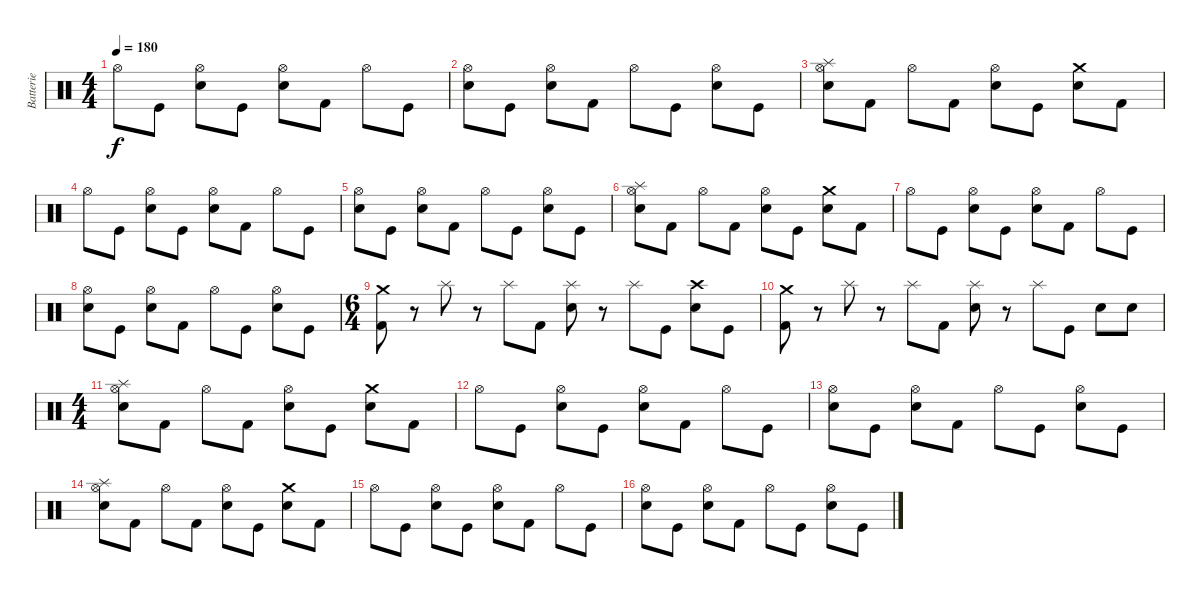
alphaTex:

\track ("Batterie" "Batterie") {instrument percussion}
\staff {score}
\articulation defaults
\ts (4 4)
\tempo 180
\clef neutral
\ks c "Hi-Hat (open)".8{dy f} "Kick (hit)".8
("Hi-Hat (open)" "Electric Snare (hit)").8 "Kick (hit)".8 ("Hi-Hat (open)" "Electric Snare (hit)").8 "Kick (hit) 2".8 "Hi-Hat (open)".8 "Kick (hit)".8 |
("Hi-Hat (open)" "Electric Snare (hit)").8 "Kick (hit)".8 ("Hi-Hat (open)" "Electric Snare (hit)").8 "Kick (hit) 2".8 "Hi-Hat (open)".8 "Kick (hit)".8 ("Hi-Hat (open)" "Electric Snare (hit)").8 "Kick (hit)".8 |
("Splash (hit)" "Hi-Hat (open)" "Electric Snare (hit)").8 "Kick (hit) 2".8 "Hi-Hat (open)".8 "Kick (hit) 2".8 ("Hi-Hat (open)" "Electric Snare (hit)").8 "Kick (hit)".8 ("Crash medium (hit)" "Electric Snare (hit)").8 "Kick (hit) 2".8 |
"Hi-Hat (open)".8 "Kick (hit)".8 ("Hi-Hat (open)" "Electric Snare (hit)").8 "Kick (hit)".8 ("Hi-Hat (open)" "Electric Snare (hit)").8 "Kick (hit) 2".8 "Hi-Hat (open)".8 "Kick (hit)".8 |
("Hi-Hat (open)" "Electric Snare (hit)").8 "Kick (hit)".8 ("Hi-Hat (open)" "Electric Snare (hit)").8 "Kick (hit) 2".8 "Hi-Hat (open)".8 "Kick (hit)".8 ("Hi-Hat (open)" "Electric Snare (hit)").8 "Kick (hit)".8 |
("Splash (hit)" "Hi-Hat (open)" "Electric Snare (hit)").8 "Kick (hit) 2".8 "Hi-Hat (open)".8 "Kick (hit) 2".8 ("Hi-Hat (open)" "Electric Snare (hit)").8 "Kick (hit)".8 ("Crash medium (hit)" "Electric Snare (hit)").8 "Kick (hit) 2".8 |
"Hi-Hat (open)".8 "Kick (hit)".8 ("Hi-Hat (open)" "Electric Snare (hit)").8 "Kick (hit)".8 ("Hi-Hat (open)" "Electric Snare (hit)").8 "Kick (hit) 2".8 "Hi-Hat (open)".8 "Kick (hit)".8 |
("Hi-Hat (open)" "Electric Snare (hit)").8 "Kick (hit)".8 ("Hi-Hat (open)" "Electric Snare (hit)").8 "Kick (hit) 2".8 "Hi-Hat (open)".8 "Kick (hit)".8 ("Hi-Hat (open)" "Electric Snare (hit)").8 "Kick (hit)".8 |
\ts (6 4)
("Crash medium (hit)" "Kick (hit) 2").8 r.8 "Splash (hit)".8 r.8 "Splash (hit)".8 "Kick (hit) 2".8 ("Splash (hit)" "Electric Snare (hit)").8 r.8 "Splash (hit)".8 "Kick (hit)".8 ("Crash high (hit)" "Electric Snare (hit)").8 "Kick (hit)".8 |
("Crash medium (hit)" "Kick (hit) 2").8 r.8 "Splash (hit)".8 r.8 "Splash (hit)".8 "Kick (hit) 2".8 ("Splash (hit)" "Electric Snare (hit)").8 r.8 "Splash (hit)".8 "Kick (hit)".8 "Electric Snare (hit)".8 "Electric Snare (hit)".8 |
\ts (4 4)
("Splash (hit)" "Hi-Hat (open)" "Electric Snare (hit)").8 "Kick (hit) 2".8 "Hi-Hat (open)".8 "Kick (hit) 2".8 ("Hi-Hat (open)" "Electric Snare (hit)").8 "Kick (hit)".8 ("Crash medium (hit)" "Electric Snare (hit)").8 "Kick (hit) 2".8 |
"Hi-Hat (open)".8 "Kick (hit)".8 ("Hi-Hat (open)" "Electric Snare (hit)").8 "Kick (hit)".8 ("Hi-Hat (open)" "Electric Snare (hit)").8 "Kick (hit) 2".8 "Hi-Hat (open)".8 "Kick (hit)".8 |
("Hi-Hat (open)" "Electric Snare (hit)").8 "Kick (hit)".8 ("Hi-Hat (open)" "Electric Snare (hit)").8 "Kick (hit) 2".8 "Hi-Hat (open)".8 "Kick (hit)".8 ("Hi-Hat (open)" "Electric Snare (hit)").8 "Kick (hit)".8 |
("Splash (hit)" "Hi-Hat (open)" "Electric Snare (hit)").8 "Kick (hit) 2".8 "Hi-Hat (open)".8 "Kick (hit) 2".8 ("Hi-Hat (open)" "Electric Snare (hit)").8 "Kick (hit)".8 ("Crash medium (hit)" "Electric Snare (hit)").8 "Kick (hit) 2".8 |
"Hi-Hat (open)".8 "Kick (hit)".8 ("Hi-Hat (open)" "Electric Snare (hit)").8 "Kick (hit)".8 ("Hi-Hat (open)" "Electric Snare (hit)").8 "Kick (hit) 2".8 "Hi-Hat (open)".8 "Kick (hit)".8 |
("Hi-Hat (open)" "Electric Snare (hit)").8 "Kick (hit)".8 ("Hi-Hat (open)" "Electric Snare (hit)").8 "Kick (hit) 2".8 "Hi-Hat (open)".8 "Kick (hit)".8 ("Hi-Hat (open)" "Electric Snare (hit)").8 "Kick (hit)".8
